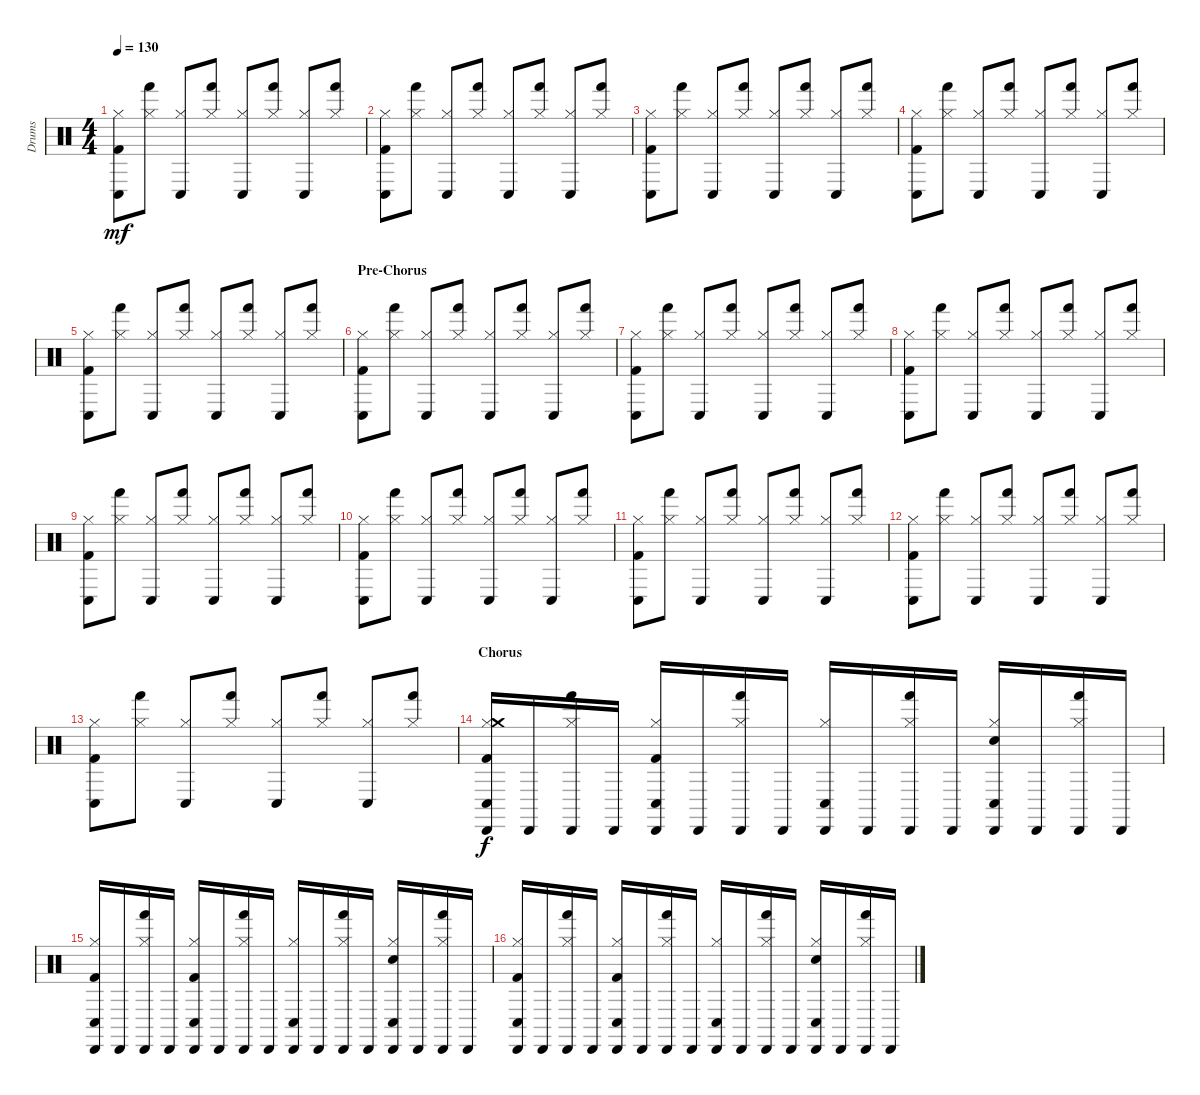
\track ("Drums" "Drums") {instrument percussion}
\staff {score}
\articulation defaults
\ts (4 4)
\tempo 130
\clef neutral
\ks c
("Kick (hit) 2" "Conga low (hit)" "Hi-Hat (closed)").8{dy mf} ("Hand (hit)" "Hi-Hat (closed)").8 ("Hi-Hat (closed)" "Conga low (hit)").8 ("Hand (hit)" "Hi-Hat (closed)").8 ("Conga low (hit)" "Hi-Hat (closed)").8 ("Hi-Hat (closed)" "Hand (hit)").8 ("Hi-Hat (closed)" "Conga low (hit)").8 ("Hi-Hat (closed)" "Hand (hit)").8 |
("Kick (hit) 2" "Conga low (hit)" "Hi-Hat (closed)").8 ("Hand (hit)" "Hi-Hat (closed)").8 ("Hi-Hat (closed)" "Conga low (hit)").8 ("Hand (hit)" "Hi-Hat (closed)").8 ("Conga low (hit)" "Hi-Hat (closed)").8 ("Hi-Hat (closed)" "Hand (hit)").8 ("Hi-Hat (closed)" "Conga low (hit)").8 ("Hi-Hat (closed)" "Hand (hit)").8 |
("Kick (hit) 2" "Conga low (hit)" "Hi-Hat (closed)").8 ("Hand (hit)" "Hi-Hat (closed)").8 ("Hi-Hat (closed)" "Conga low (hit)").8 ("Hand (hit)" "Hi-Hat (closed)").8 ("Conga low (hit)" "Hi-Hat (closed)").8 ("Hi-Hat (closed)" "Hand (hit)").8 ("Hi-Hat (closed)" "Conga low (hit)").8 ("Hi-Hat (closed)" "Hand (hit)").8 |
("Kick (hit) 2" "Conga low (hit)" "Hi-Hat (closed)").8 ("Hand (hit)" "Hi-Hat (closed)").8 ("Hi-Hat (closed)" "Conga low (hit)").8 ("Hand (hit)" "Hi-Hat (closed)").8 ("Conga low (hit)" "Hi-Hat (closed)").8 ("Hi-Hat (closed)" "Hand (hit)").8 ("Hi-Hat (closed)" "Conga low (hit)").8 ("Hi-Hat (closed)" "Hand (hit)").8 |
("Kick (hit) 2" "Conga low (hit)" "Hi-Hat (closed)").8 ("Hand (hit)" "Hi-Hat (closed)").8 ("Hi-Hat (closed)" "Conga low (hit)").8 ("Hand (hit)" "Hi-Hat (closed)").8 ("Conga low (hit)" "Hi-Hat (closed)").8 ("Hi-Hat (closed)" "Hand (hit)").8 ("Hi-Hat (closed)" "Conga low (hit)").8 ("Hi-Hat (closed)" "Hand (hit)").8 |
\section ("" "Pre-Chorus")
("Kick (hit) 2" "Conga low (hit)" "Hi-Hat (closed)").8 ("Hand (hit)" "Hi-Hat (closed)").8 ("Hi-Hat (closed)" "Conga low (hit)").8 ("Hand (hit)" "Hi-Hat (closed)").8 ("Conga low (hit)" "Hi-Hat (closed)").8 ("Hi-Hat (closed)" "Hand (hit)").8 ("Hi-Hat (closed)" "Conga low (hit)").8 ("Hi-Hat (closed)" "Hand (hit)").8 |
("Kick (hit) 2" "Conga low (hit)" "Hi-Hat (closed)").8 ("Hand (hit)" "Hi-Hat (closed)").8 ("Hi-Hat (closed)" "Conga low (hit)").8 ("Hand (hit)" "Hi-Hat (closed)").8 ("Conga low (hit)" "Hi-Hat (closed)").8 ("Hi-Hat (closed)" "Hand (hit)").8 ("Hi-Hat (closed)" "Conga low (hit)").8 ("Hi-Hat (closed)" "Hand (hit)").8 |
("Kick (hit) 2" "Conga low (hit)" "Hi-Hat (closed)").8 ("Hand (hit)" "Hi-Hat (closed)").8 ("Hi-Hat (closed)" "Conga low (hit)").8 ("Hand (hit)" "Hi-Hat (closed)").8 ("Conga low (hit)" "Hi-Hat (closed)").8 ("Hi-Hat (closed)" "Hand (hit)").8 ("Hi-Hat (closed)" "Conga low (hit)").8 ("Hi-Hat (closed)" "Hand (hit)").8 |
("Kick (hit) 2" "Conga low (hit)" "Hi-Hat (closed)").8 ("Hand (hit)" "Hi-Hat (closed)").8 ("Hi-Hat (closed)" "Conga low (hit)").8 ("Hand (hit)" "Hi-Hat (closed)").8 ("Conga low (hit)" "Hi-Hat (closed)").8 ("Hi-Hat (closed)" "Hand (hit)").8 ("Hi-Hat (closed)" "Conga low (hit)").8 ("Hi-Hat (closed)" "Hand (hit)").8 |
("Kick (hit) 2" "Conga low (hit)" "Hi-Hat (closed)").8 ("Hand (hit)" "Hi-Hat (closed)").8 ("Hi-Hat (closed)" "Conga low (hit)").8 ("Hand (hit)" "Hi-Hat (closed)").8 ("Conga low (hit)" "Hi-Hat (closed)").8 ("Hi-Hat (closed)" "Hand (hit)").8 ("Hi-Hat (closed)" "Conga low (hit)").8 ("Hi-Hat (closed)" "Hand (hit)").8 |
("Kick (hit) 2" "Conga low (hit)" "Hi-Hat (closed)").8 ("Hand (hit)" "Hi-Hat (closed)").8 ("Hi-Hat (closed)" "Conga low (hit)").8 ("Hand (hit)" "Hi-Hat (closed)").8 ("Conga low (hit)" "Hi-Hat (closed)").8 ("Hi-Hat (closed)" "Hand (hit)").8 ("Hi-Hat (closed)" "Conga low (hit)").8 ("Hi-Hat (closed)" "Hand (hit)").8 |
("Kick (hit) 2" "Conga low (hit)" "Hi-Hat (closed)").8 ("Hand (hit)" "Hi-Hat (closed)").8 ("Hi-Hat (closed)" "Conga low (hit)").8 ("Hand (hit)" "Hi-Hat (closed)").8 ("Conga low (hit)" "Hi-Hat (closed)").8 ("Hi-Hat (closed)" "Hand (hit)").8 ("Hi-Hat (closed)" "Conga low (hit)").8 ("Hi-Hat (closed)" "Hand (hit)").8 |
("Kick (hit) 2" "Conga low (hit)" "Hi-Hat (closed)").8 ("Hand (hit)" "Hi-Hat (closed)").8 ("Hi-Hat (closed)" "Conga low (hit)").8 ("Hand (hit)" "Hi-Hat (closed)").8 ("Conga low (hit)" "Hi-Hat (closed)").8 ("Hi-Hat (closed)" "Hand (hit)").8 ("Hi-Hat (closed)" "Conga low (hit)").8 ("Hi-Hat (closed)" "Hand (hit)").8 |
\section ("" "Chorus")
("Kick (hit) 2" "Cabasa (hit)" "Conga low (hit)" "Hi-Hat (closed)" "Crash medium (hit)").16{dy f} "Cabasa (hit)".16 ("Hand (hit)" "Hi-Hat (closed)" "Cabasa (hit)").16 "Cabasa (hit)".16 ("Cabasa (hit)" "Hi-Hat (closed)" "Kick (hit) 2" "Conga low (hit)").16 "Cabasa (hit)".16 ("Hand (hit)" "Cabasa (hit)" "Hi-Hat (closed)").16 "Cabasa (hit)".16 ("Hi-Hat (closed)" "Conga low (hit)" "Cabasa (hit)").16 "Cabasa (hit)".16 ("Hand (hit)" "Cabasa (hit)" "Hi-Hat (closed)").16 "Cabasa (hit)".16 ("Hand Clap (hit)" "Cabasa (hit)" "Hi-Hat (closed)" "Conga low (hit)").16 "Cabasa (hit)".16 ("Cabasa (hit)" "Hi-Hat (closed)" "Hand (hit)").16 "Cabasa (hit)".16 |
("Kick (hit) 2" "Cabasa (hit)" "Conga low (hit)" "Hi-Hat (closed)").16 "Cabasa (hit)".16 ("Hand (hit)" "Hi-Hat (closed)" "Cabasa (hit)").16 "Cabasa (hit)".16 ("Cabasa (hit)" "Hi-Hat (closed)" "Kick (hit) 2" "Conga low (hit)").16 "Cabasa (hit)".16 ("Hand (hit)" "Cabasa (hit)" "Hi-Hat (closed)").16 "Cabasa (hit)".16 ("Hi-Hat (closed)" "Conga low (hit)" "Cabasa (hit)").16 "Cabasa (hit)".16 ("Hand (hit)" "Cabasa (hit)" "Hi-Hat (closed)").16 "Cabasa (hit)".16 ("Hand Clap (hit)" "Cabasa (hit)" "Hi-Hat (closed)" "Conga low (hit)").16 "Cabasa (hit)".16 ("Cabasa (hit)" "Hi-Hat (closed)" "Hand (hit)").16 "Cabasa (hit)".16 |
("Kick (hit) 2" "Cabasa (hit)" "Conga low (hit)" "Hi-Hat (closed)").16 "Cabasa (hit)".16 ("Hand (hit)" "Hi-Hat (closed)" "Cabasa (hit)").16 "Cabasa (hit)".16 ("Cabasa (hit)" "Hi-Hat (closed)" "Kick (hit) 2" "Conga low (hit)").16 "Cabasa (hit)".16 ("Hand (hit)" "Cabasa (hit)" "Hi-Hat (closed)").16 "Cabasa (hit)".16 ("Hi-Hat (closed)" "Conga low (hit)" "Cabasa (hit)").16 "Cabasa (hit)".16 ("Hand (hit)" "Cabasa (hit)" "Hi-Hat (closed)").16 "Cabasa (hit)".16 ("Hand Clap (hit)" "Cabasa (hit)" "Hi-Hat (closed)" "Conga low (hit)").16 "Cabasa (hit)".16 ("Cabasa (hit)" "Hi-Hat (closed)" "Hand (hit)").16 "Cabasa (hit)".16
